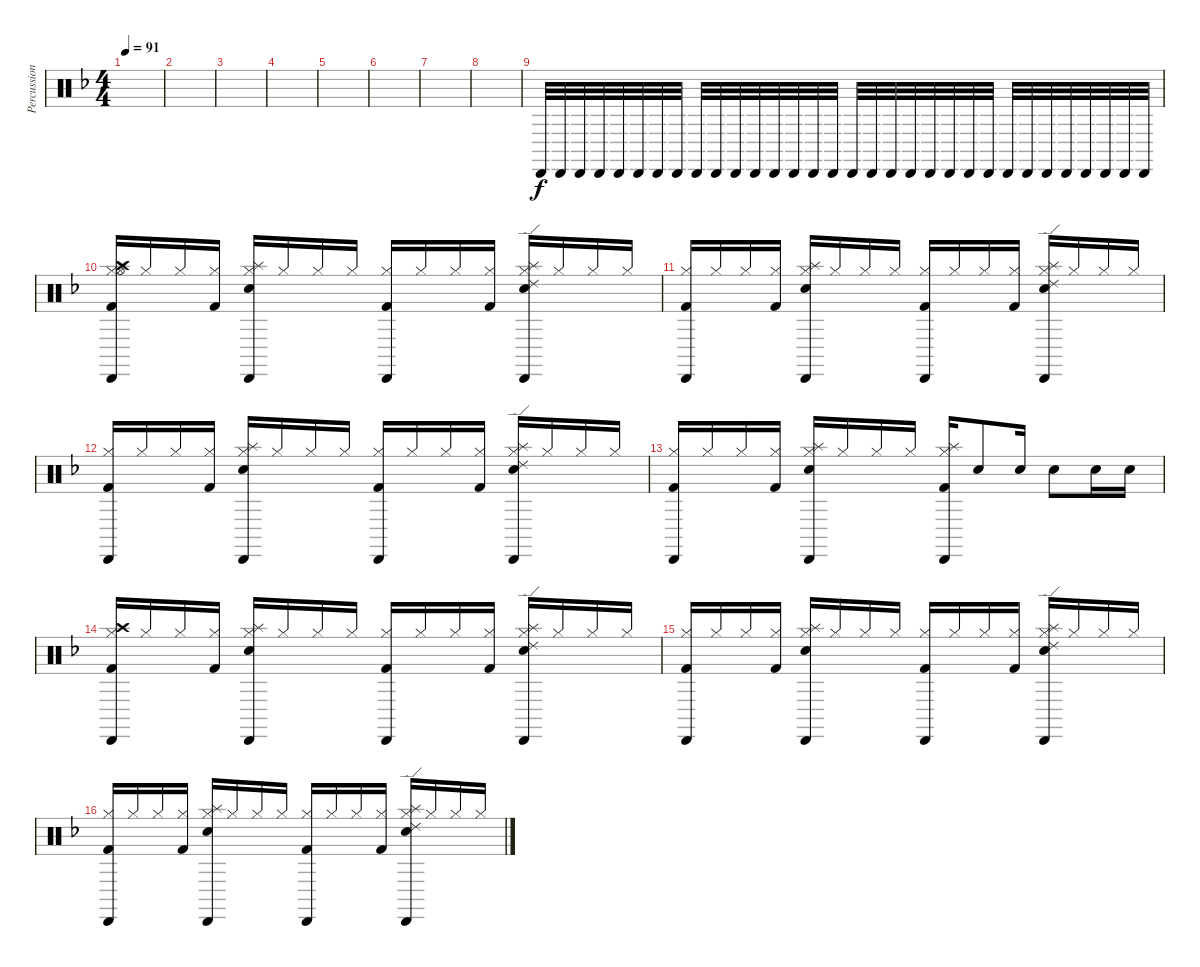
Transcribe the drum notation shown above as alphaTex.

\track ("Percussion" "Percussion") {instrument percussion}
\staff {score}
\articulation defaults
\ts (4 4)
\tempo 91
\clef neutral
\ks dminor
|
|
|
|
|
|
|
|
"Cabasa (hit)".32{volume 0} "Cabasa (hit)".32{volume 9} "Cabasa (hit)".32 "Cabasa (hit)".32 "Cabasa (hit)".32 "Cabasa (hit)".32 "Cabasa (hit)".32 "Cabasa (hit)".32 "Cabasa (hit)".32 "Cabasa (hit)".32 "Cabasa (hit)".32 "Cabasa (hit)".32 "Cabasa (hit)".32 "Cabasa (hit)".32 "Cabasa (hit)".32 "Cabasa (hit)".32 "Cabasa (hit)".32{volume 0} "Cabasa (hit)".32 "Cabasa (hit)".32 "Cabasa (hit)".32 "Cabasa (hit)".32 "Cabasa (hit)".32 "Cabasa (hit)".32 "Cabasa (hit)".32 "Cabasa (hit)".32 "Cabasa (hit)".32 "Cabasa (hit)".32 "Cabasa (hit)".32 "Cabasa (hit)".32 "Cabasa (hit)".32 "Cabasa (hit)".32 "Cabasa (hit)".32 |
("Hi-Hat (closed)" "Kick (hit) 2" "Cabasa (hit)" "Hi-Hat (open)" "Crash high (hit)" "Splash (hit)").16{volume 12} "Hi-Hat (closed)".16 "Hi-Hat (closed)".16 ("Hi-Hat (closed)" "Kick (hit) 2").16 ("Hi-Hat (closed)" "Snare (hit) 2" "Cabasa (hit)" "Splash (hit)").16 "Hi-Hat (closed)".16 "Hi-Hat (closed)".16 "Hi-Hat (closed)".16 ("Hi-Hat (closed)" "Kick (hit) 2" "Cabasa (hit)").16 "Hi-Hat (closed)".16 "Hi-Hat (closed)".16 ("Hi-Hat (closed)" "Kick (hit) 2").16 ("Hi-Hat (closed)" "Snare (hit) 2" "Cabasa (hit)" "Ride (edge) 2" "Splash (hit)").16 "Hi-Hat (closed)".16 "Hi-Hat (closed)".16 "Hi-Hat (closed)".16 |
("Hi-Hat (closed)" "Kick (hit) 2" "Cabasa (hit)").16{volume 12} "Hi-Hat (closed)".16 "Hi-Hat (closed)".16 ("Hi-Hat (closed)" "Kick (hit) 2").16 ("Hi-Hat (closed)" "Snare (hit) 2" "Cabasa (hit)" "Splash (hit)").16 "Hi-Hat (closed)".16 "Hi-Hat (closed)".16 "Hi-Hat (closed)".16 ("Hi-Hat (closed)" "Kick (hit) 2" "Cabasa (hit)").16 "Hi-Hat (closed)".16 "Hi-Hat (closed)".16 ("Hi-Hat (closed)" "Kick (hit) 2").16 ("Hi-Hat (closed)" "Snare (hit) 2" "Cabasa (hit)" "Ride (edge) 2" "Splash (hit)").16 "Hi-Hat (closed)".16 "Hi-Hat (closed)".16 "Hi-Hat (closed)".16 |
("Hi-Hat (closed)" "Kick (hit) 2" "Cabasa (hit)").16{volume 12} "Hi-Hat (closed)".16 "Hi-Hat (closed)".16 ("Hi-Hat (closed)" "Kick (hit) 2").16 ("Hi-Hat (closed)" "Snare (hit) 2" "Cabasa (hit)" "Splash (hit)").16 "Hi-Hat (closed)".16 "Hi-Hat (closed)".16 "Hi-Hat (closed)".16 ("Hi-Hat (closed)" "Kick (hit) 2" "Cabasa (hit)").16 "Hi-Hat (closed)".16 "Hi-Hat (closed)".16 ("Hi-Hat (closed)" "Kick (hit) 2").16 ("Hi-Hat (closed)" "Snare (hit) 2" "Cabasa (hit)" "Ride (edge) 2" "Splash (hit)").16 "Hi-Hat (closed)".16 "Hi-Hat (closed)".16 "Hi-Hat (closed)".16 |
("Hi-Hat (closed)" "Kick (hit) 2" "Cabasa (hit)").16{volume 12} "Hi-Hat (closed)".16 "Hi-Hat (closed)".16 ("Hi-Hat (closed)" "Kick (hit) 2").16 ("Hi-Hat (closed)" "Snare (hit) 2" "Cabasa (hit)" "Splash (hit)").16 "Hi-Hat (closed)".16 "Hi-Hat (closed)".16 "Hi-Hat (closed)".16 ("Hi-Hat (closed)" "Kick (hit) 2" "Cabasa (hit)" "Splash (hit)").16 "Snare (hit) 2".8 "Snare (hit) 2".16 "Snare (hit) 2".8 "Snare (hit) 2".16 "Snare (hit) 2".16 |
("Hi-Hat (closed)" "Kick (hit) 2" "Cabasa (hit)" "Crash high (hit)").16{volume 12} "Hi-Hat (closed)".16 "Hi-Hat (closed)".16 ("Hi-Hat (closed)" "Kick (hit) 2").16 ("Hi-Hat (closed)" "Snare (hit) 2" "Cabasa (hit)" "Splash (hit)").16 "Hi-Hat (closed)".16 "Hi-Hat (closed)".16 "Hi-Hat (closed)".16 ("Hi-Hat (closed)" "Kick (hit) 2" "Cabasa (hit)").16 "Hi-Hat (closed)".16 "Hi-Hat (closed)".16 ("Hi-Hat (closed)" "Kick (hit) 2").16 ("Hi-Hat (closed)" "Snare (hit) 2" "Cabasa (hit)" "Ride (edge) 2" "Splash (hit)").16 "Hi-Hat (closed)".16 "Hi-Hat (closed)".16 "Hi-Hat (closed)".16 |
("Hi-Hat (closed)" "Kick (hit) 2" "Cabasa (hit)").16{volume 12} "Hi-Hat (closed)".16 "Hi-Hat (closed)".16 ("Hi-Hat (closed)" "Kick (hit) 2").16 ("Hi-Hat (closed)" "Snare (hit) 2" "Cabasa (hit)" "Splash (hit)").16 "Hi-Hat (closed)".16 "Hi-Hat (closed)".16 "Hi-Hat (closed)".16 ("Hi-Hat (closed)" "Kick (hit) 2" "Cabasa (hit)").16 "Hi-Hat (closed)".16 "Hi-Hat (closed)".16 ("Hi-Hat (closed)" "Kick (hit) 2").16 ("Hi-Hat (closed)" "Snare (hit) 2" "Cabasa (hit)" "Ride (edge) 2" "Splash (hit)").16 "Hi-Hat (closed)".16 "Hi-Hat (closed)".16 "Hi-Hat (closed)".16 |
("Hi-Hat (closed)" "Kick (hit) 2" "Cabasa (hit)").16{volume 12} "Hi-Hat (closed)".16 "Hi-Hat (closed)".16 ("Hi-Hat (closed)" "Kick (hit) 2").16 ("Hi-Hat (closed)" "Snare (hit) 2" "Cabasa (hit)" "Splash (hit)").16 "Hi-Hat (closed)".16 "Hi-Hat (closed)".16 "Hi-Hat (closed)".16 ("Hi-Hat (closed)" "Kick (hit) 2" "Cabasa (hit)").16 "Hi-Hat (closed)".16 "Hi-Hat (closed)".16 ("Hi-Hat (closed)" "Kick (hit) 2").16 ("Hi-Hat (closed)" "Snare (hit) 2" "Cabasa (hit)" "Ride (edge) 2" "Splash (hit)").16 "Hi-Hat (closed)".16 "Hi-Hat (closed)".16 "Hi-Hat (closed)".16
